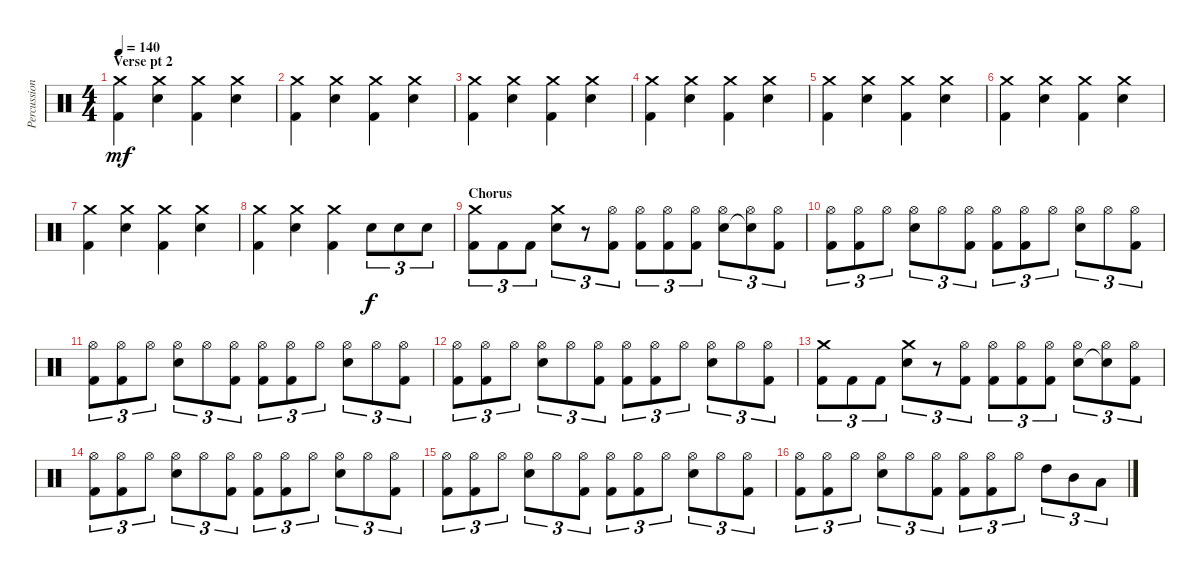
\track ("Percussion" "Percussion") {instrument percussion}
\staff {score}
\articulation defaults
\ts (4 4)
\section ("" "Verse pt 2")
\tempo 140
\clef neutral
\ks c
("Crash medium (hit)" "Kick (hit) 2").4{dy mf} ("Crash medium (hit)" "Electric Snare (hit)").4 ("Crash medium (hit)" "Kick (hit) 2").4 ("Crash medium (hit)" "Electric Snare (hit)").4 |
("Crash medium (hit)" "Kick (hit) 2").4 ("Crash medium (hit)" "Electric Snare (hit)").4 ("Crash medium (hit)" "Kick (hit) 2").4 ("Crash medium (hit)" "Electric Snare (hit)").4 |
("Crash medium (hit)" "Kick (hit) 2").4 ("Crash medium (hit)" "Electric Snare (hit)").4 ("Crash medium (hit)" "Kick (hit) 2").4 ("Crash medium (hit)" "Electric Snare (hit)").4 |
("Crash medium (hit)" "Kick (hit) 2").4 ("Crash medium (hit)" "Electric Snare (hit)").4 ("Crash medium (hit)" "Kick (hit) 2").4 ("Crash medium (hit)" "Electric Snare (hit)").4 |
("Crash medium (hit)" "Kick (hit) 2").4 ("Crash medium (hit)" "Electric Snare (hit)").4 ("Crash medium (hit)" "Kick (hit) 2").4 ("Crash medium (hit)" "Electric Snare (hit)").4 |
("Crash medium (hit)" "Kick (hit) 2").4 ("Crash medium (hit)" "Electric Snare (hit)").4 ("Crash medium (hit)" "Kick (hit) 2").4 ("Crash medium (hit)" "Electric Snare (hit)").4 |
("Crash medium (hit)" "Kick (hit) 2").4 ("Crash medium (hit)" "Electric Snare (hit)").4 ("Crash medium (hit)" "Kick (hit) 2").4 ("Crash medium (hit)" "Electric Snare (hit)").4 |
("Crash medium (hit)" "Kick (hit) 2").4 ("Crash medium (hit)" "Electric Snare (hit)").4 ("Crash medium (hit)" "Kick (hit) 2").4 "Electric Snare (hit)".8{tu (3 2) dy f} "Electric Snare (hit)".8{tu (3 2)} "Electric Snare (hit)".8{tu (3 2)} |
\section ("" "Chorus")
("Crash medium (hit)" "Kick (hit) 2").8{tu (3 2)} "Kick (hit) 2".8{tu (3 2)} "Kick (hit) 2".8{tu (3 2)} ("Crash medium (hit)" "Electric Snare (hit)").8{tu (3 2)} r.8{tu (3 2)} ("Hi-Hat (open)" "Kick (hit) 2").8{tu (3 2)} ("Hi-Hat (open)" "Kick (hit) 2").8{tu (3 2)} ("Hi-Hat (open)" "Kick (hit) 2").8{tu (3 2)} ("Hi-Hat (open)" "Kick (hit) 2").8{tu (3 2)} ("Hi-Hat (open)" "Electric Snare (hit)").8{tu (3 2)} ("Hi-Hat (open)" "Snare (hit)"{t}).8{tu (3 2)} ("Hi-Hat (open)" "Kick (hit) 2").8{tu (3 2)} |
("Hi-Hat (open)" "Kick (hit) 2").8{tu (3 2)} ("Hi-Hat (open)" "Kick (hit) 2").8{tu (3 2)} "Hi-Hat (open)".8{tu (3 2)} ("Hi-Hat (open)" "Electric Snare (hit)").8{tu (3 2)} "Hi-Hat (open)".8{tu (3 2)} ("Hi-Hat (open)" "Kick (hit) 2").8{tu (3 2)} ("Hi-Hat (open)" "Kick (hit) 2").8{tu (3 2)} ("Hi-Hat (open)" "Kick (hit) 2").8{tu (3 2)} "Hi-Hat (open)".8{tu (3 2)} ("Hi-Hat (open)" "Electric Snare (hit)").8{tu (3 2)} "Hi-Hat (open)".8{tu (3 2)} ("Hi-Hat (open)" "Kick (hit) 2").8{tu (3 2)} |
("Hi-Hat (open)" "Kick (hit) 2").8{tu (3 2)} ("Hi-Hat (open)" "Kick (hit) 2").8{tu (3 2)} "Hi-Hat (open)".8{tu (3 2)} ("Hi-Hat (open)" "Electric Snare (hit)").8{tu (3 2)} "Hi-Hat (open)".8{tu (3 2)} ("Hi-Hat (open)" "Kick (hit) 2").8{tu (3 2)} ("Hi-Hat (open)" "Kick (hit) 2").8{tu (3 2)} ("Hi-Hat (open)" "Kick (hit) 2").8{tu (3 2)} "Hi-Hat (open)".8{tu (3 2)} ("Hi-Hat (open)" "Electric Snare (hit)").8{tu (3 2)} "Hi-Hat (open)".8{tu (3 2)} ("Hi-Hat (open)" "Kick (hit) 2").8{tu (3 2)} |
("Hi-Hat (open)" "Kick (hit) 2").8{tu (3 2)} ("Hi-Hat (open)" "Kick (hit) 2").8{tu (3 2)} "Hi-Hat (open)".8{tu (3 2)} ("Hi-Hat (open)" "Electric Snare (hit)").8{tu (3 2)} "Hi-Hat (open)".8{tu (3 2)} ("Hi-Hat (open)" "Kick (hit) 2").8{tu (3 2)} ("Hi-Hat (open)" "Kick (hit) 2").8{tu (3 2)} ("Hi-Hat (open)" "Kick (hit) 2").8{tu (3 2)} "Hi-Hat (open)".8{tu (3 2)} ("Hi-Hat (open)" "Electric Snare (hit)").8{tu (3 2)} "Hi-Hat (open)".8{tu (3 2)} ("Hi-Hat (open)" "Kick (hit) 2").8{tu (3 2)} |
("Crash medium (hit)" "Kick (hit) 2").8{tu (3 2)} "Kick (hit) 2".8{tu (3 2)} "Kick (hit) 2".8{tu (3 2)} ("Crash medium (hit)" "Electric Snare (hit)").8{tu (3 2)} r.8{tu (3 2)} ("Hi-Hat (open)" "Kick (hit) 2").8{tu (3 2)} ("Hi-Hat (open)" "Kick (hit) 2").8{tu (3 2)} ("Hi-Hat (open)" "Kick (hit) 2").8{tu (3 2)} ("Hi-Hat (open)" "Kick (hit) 2").8{tu (3 2)} ("Hi-Hat (open)" "Electric Snare (hit)").8{tu (3 2)} ("Hi-Hat (open)" "Snare (hit)"{t}).8{tu (3 2)} ("Hi-Hat (open)" "Kick (hit) 2").8{tu (3 2)} |
("Hi-Hat (open)" "Kick (hit) 2").8{tu (3 2)} ("Hi-Hat (open)" "Kick (hit) 2").8{tu (3 2)} "Hi-Hat (open)".8{tu (3 2)} ("Hi-Hat (open)" "Electric Snare (hit)").8{tu (3 2)} "Hi-Hat (open)".8{tu (3 2)} ("Hi-Hat (open)" "Kick (hit) 2").8{tu (3 2)} ("Hi-Hat (open)" "Kick (hit) 2").8{tu (3 2)} ("Hi-Hat (open)" "Kick (hit) 2").8{tu (3 2)} "Hi-Hat (open)".8{tu (3 2)} ("Hi-Hat (open)" "Electric Snare (hit)").8{tu (3 2)} "Hi-Hat (open)".8{tu (3 2)} ("Hi-Hat (open)" "Kick (hit) 2").8{tu (3 2)} |
("Hi-Hat (open)" "Kick (hit) 2").8{tu (3 2)} ("Hi-Hat (open)" "Kick (hit) 2").8{tu (3 2)} "Hi-Hat (open)".8{tu (3 2)} ("Hi-Hat (open)" "Electric Snare (hit)").8{tu (3 2)} "Hi-Hat (open)".8{tu (3 2)} ("Hi-Hat (open)" "Kick (hit) 2").8{tu (3 2)} ("Hi-Hat (open)" "Kick (hit) 2").8{tu (3 2)} ("Hi-Hat (open)" "Kick (hit) 2").8{tu (3 2)} "Hi-Hat (open)".8{tu (3 2)} ("Hi-Hat (open)" "Electric Snare (hit)").8{tu (3 2)} "Hi-Hat (open)".8{tu (3 2)} ("Hi-Hat (open)" "Kick (hit) 2").8{tu (3 2)} |
("Hi-Hat (open)" "Kick (hit) 2").8{tu (3 2)} ("Hi-Hat (open)" "Kick (hit) 2").8{tu (3 2)} "Hi-Hat (open)".8{tu (3 2)} ("Hi-Hat (open)" "Electric Snare (hit)").8{tu (3 2)} "Hi-Hat (open)".8{tu (3 2)} ("Hi-Hat (open)" "Kick (hit) 2").8{tu (3 2)} ("Hi-Hat (open)" "Kick (hit) 2").8{tu (3 2)} ("Hi-Hat (open)" "Kick (hit) 2").8{tu (3 2)} "Hi-Hat (open)".8{tu (3 2)} "High Tom (hit)".8{tu (3 2)} "Mid Tom (hit)".8{tu (3 2)} "Low Tom (hit)".8{tu (3 2)}
